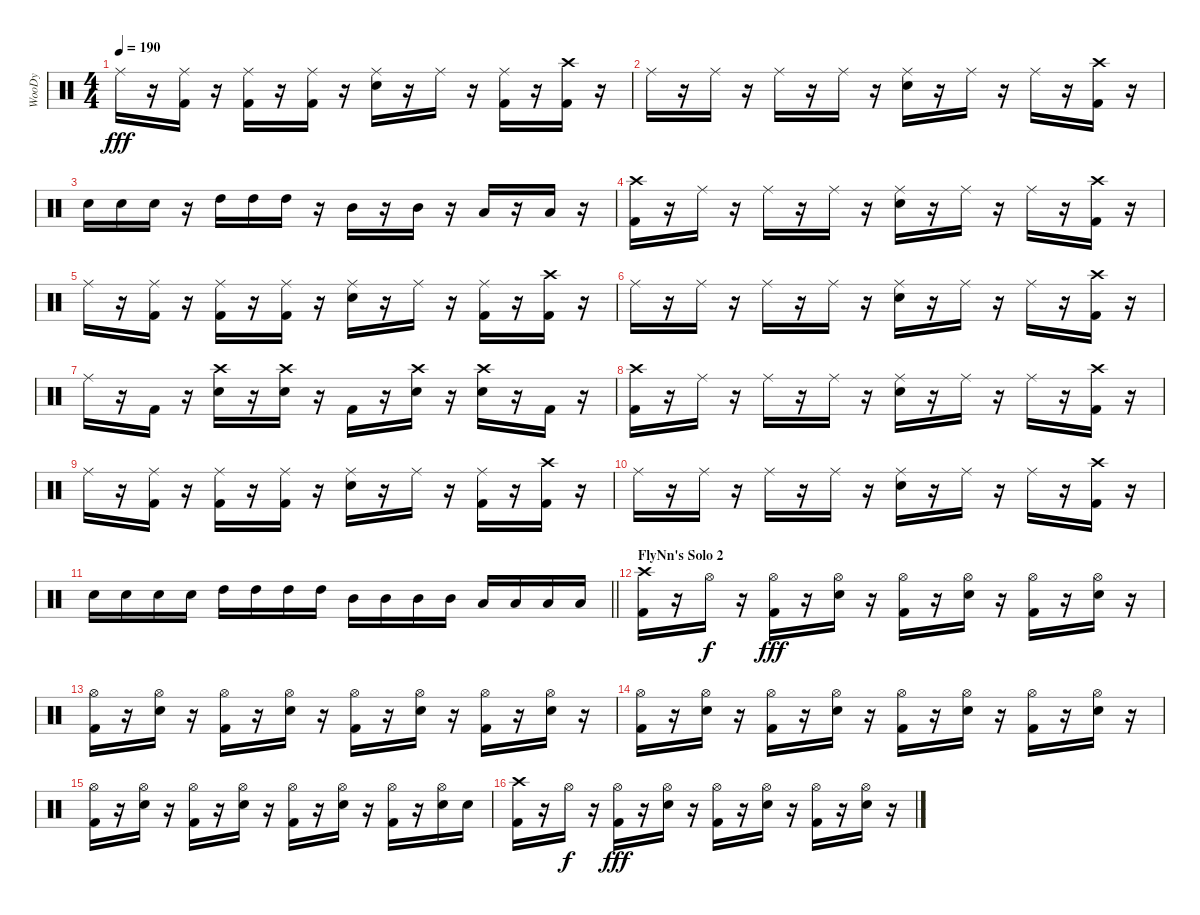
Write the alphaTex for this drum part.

\track ("WooDy" "WooDy") {instrument percussion}
\staff {score}
\articulation defaults
\ts (4 4)
\tempo 190
\clef neutral
\ks c "Ride (middle)".16{dy fff}
r.16 ("Kick (hit) 2" "Ride (middle)").16 r.16 ("Kick (hit) 2" "Ride (middle)").16 r.16 ("Kick (hit) 2" "Ride (middle)").16 r.16 ("Snare (hit) 2" "Ride (middle)").16 r.16 "Ride (middle)".16 r.16 ("Kick (hit) 2" "Ride (middle)").16 r.16 ("Kick (hit) 2" "Crash high (hit)").16 r.16 |
"Ride (middle)".16 r.16 "Ride (middle)".16 r.16 "Ride (middle)".16 r.16 "Ride (middle)".16 r.16 ("Snare (hit) 2" "Ride (middle)").16 r.16 "Ride (middle)".16 r.16 "Ride (middle)".16 r.16 ("Kick (hit) 2" "Crash high (hit)").16 r.16 |
"Snare (hit) 2".16 "Snare (hit) 2".16 "Snare (hit) 2".16 r.16 "High Tom (hit)".16 "High Tom (hit)".16 "High Tom (hit)".16 r.16 "Mid Tom (hit)".16 r.16 "Mid Tom (hit)".16 r.16 "Low Tom (hit)".16 r.16 "Low Tom (hit)".16 r.16 |
("Kick (hit) 2" "Crash high (hit)").16 r.16 "Ride (middle)".16 r.16 "Ride (middle)".16 r.16 "Ride (middle)".16 r.16 ("Snare (hit) 2" "Ride (middle)").16 r.16 "Ride (middle)".16 r.16 "Ride (middle)".16 r.16 ("Kick (hit) 2" "Crash high (hit)").16 r.16 |
"Ride (middle)".16 r.16 ("Kick (hit) 2" "Ride (middle)").16 r.16 ("Kick (hit) 2" "Ride (middle)").16 r.16 ("Kick (hit) 2" "Ride (middle)").16 r.16 ("Snare (hit) 2" "Ride (middle)").16 r.16 "Ride (middle)".16 r.16 ("Kick (hit) 2" "Ride (middle)").16 r.16 ("Kick (hit) 2" "Crash high (hit)").16 r.16 |
"Ride (middle)".16 r.16 "Ride (middle)".16 r.16 "Ride (middle)".16 r.16 "Ride (middle)".16 r.16 ("Snare (hit) 2" "Ride (middle)").16 r.16 "Ride (middle)".16 r.16 "Ride (middle)".16 r.16 ("Kick (hit) 2" "Crash high (hit)").16 r.16 |
"Ride (middle)".16 r.16 "Kick (hit) 2".16 r.16 ("Snare (hit) 2" "Crash high (hit)").16 r.16 ("Snare (hit) 2" "Crash high (hit)").16 r.16 "Kick (hit) 2".16 r.16 ("Snare (hit) 2" "Crash high (hit)").16 r.16 ("Snare (hit) 2" "Crash high (hit)").16 r.16 "Kick (hit) 2".16 r.16 |
("Kick (hit) 2" "Crash high (hit)").16 r.16 "Ride (middle)".16 r.16 "Ride (middle)".16 r.16 "Ride (middle)".16 r.16 ("Snare (hit) 2" "Ride (middle)").16 r.16 "Ride (middle)".16 r.16 "Ride (middle)".16 r.16 ("Kick (hit) 2" "Crash high (hit)").16 r.16 |
"Ride (middle)".16 r.16 ("Kick (hit) 2" "Ride (middle)").16 r.16 ("Kick (hit) 2" "Ride (middle)").16 r.16 ("Kick (hit) 2" "Ride (middle)").16 r.16 ("Snare (hit) 2" "Ride (middle)").16 r.16 "Ride (middle)".16 r.16 ("Kick (hit) 2" "Ride (middle)").16 r.16 ("Kick (hit) 2" "Crash high (hit)").16 r.16 |
"Ride (middle)".16 r.16 "Ride (middle)".16 r.16 "Ride (middle)".16 r.16 "Ride (middle)".16 r.16 ("Snare (hit) 2" "Ride (middle)").16 r.16 "Ride (middle)".16 r.16 "Ride (middle)".16 r.16 ("Kick (hit) 2" "Crash high (hit)").16 r.16 |
\barLineRight lightlight "Snare (hit) 2".16 "Snare (hit) 2".16 "Snare (hit) 2".16 "Snare (hit) 2".16 "High Tom (hit)".16 "High Tom (hit)".16 "High Tom (hit)".16 "High Tom (hit)".16 "Mid Tom (hit)".16 "Mid Tom (hit)".16 "Mid Tom (hit)".16 "Mid Tom (hit)".16 "Low Tom (hit)".16 "Low Tom (hit)".16 "Low Tom (hit)".16 "Low Tom (hit)".16
|
\section ("" "FlyNn's Solo 2")
("Kick (hit) 2" "Crash high (hit)").16 r.16 "Hi-Hat (open)".16{dy f} r.16 ("Kick (hit) 2" "Hi-Hat (open)").16{dy fff} r.16 ("Snare (hit) 2" "Hi-Hat (open)").16 r.16 ("Kick (hit) 2" "Hi-Hat (open)").16 r.16 ("Snare (hit) 2" "Hi-Hat (open)").16 r.16 ("Kick (hit) 2" "Hi-Hat (open)").16 r.16 ("Snare (hit) 2" "Hi-Hat (open)").16 r.16 |
("Kick (hit) 2" "Hi-Hat (open)").16 r.16 ("Snare (hit) 2" "Hi-Hat (open)").16 r.16 ("Kick (hit) 2" "Hi-Hat (open)").16 r.16 ("Snare (hit) 2" "Hi-Hat (open)").16 r.16 ("Kick (hit) 2" "Hi-Hat (open)").16 r.16 ("Snare (hit) 2" "Hi-Hat (open)").16 r.16 ("Kick (hit) 2" "Hi-Hat (open)").16 r.16 ("Snare (hit) 2" "Hi-Hat (open)").16 r.16 |
("Kick (hit) 2" "Hi-Hat (open)").16 r.16 ("Snare (hit) 2" "Hi-Hat (open)").16 r.16 ("Kick (hit) 2" "Hi-Hat (open)").16 r.16 ("Snare (hit) 2" "Hi-Hat (open)").16 r.16 ("Kick (hit) 2" "Hi-Hat (open)").16 r.16 ("Snare (hit) 2" "Hi-Hat (open)").16 r.16 ("Kick (hit) 2" "Hi-Hat (open)").16 r.16 ("Snare (hit) 2" "Hi-Hat (open)").16 r.16 |
("Kick (hit) 2" "Hi-Hat (open)").16 r.16 ("Snare (hit) 2" "Hi-Hat (open)").16 r.16 ("Kick (hit) 2" "Hi-Hat (open)").16 r.16 ("Snare (hit) 2" "Hi-Hat (open)").16 r.16 ("Kick (hit) 2" "Hi-Hat (open)").16 r.16 ("Snare (hit) 2" "Hi-Hat (open)").16 r.16 ("Kick (hit) 2" "Hi-Hat (open)").16 r.16 ("Snare (hit) 2" "Hi-Hat (open)").16 "Snare (hit) 2".16 |
("Kick (hit) 2" "Crash high (hit)").16 r.16 "Hi-Hat (open)".16{dy f} r.16 ("Kick (hit) 2" "Hi-Hat (open)").16{dy fff} r.16 ("Snare (hit) 2" "Hi-Hat (open)").16 r.16 ("Kick (hit) 2" "Hi-Hat (open)").16 r.16 ("Snare (hit) 2" "Hi-Hat (open)").16 r.16 ("Kick (hit) 2" "Hi-Hat (open)").16 r.16 ("Snare (hit) 2" "Hi-Hat (open)").16 r.16
